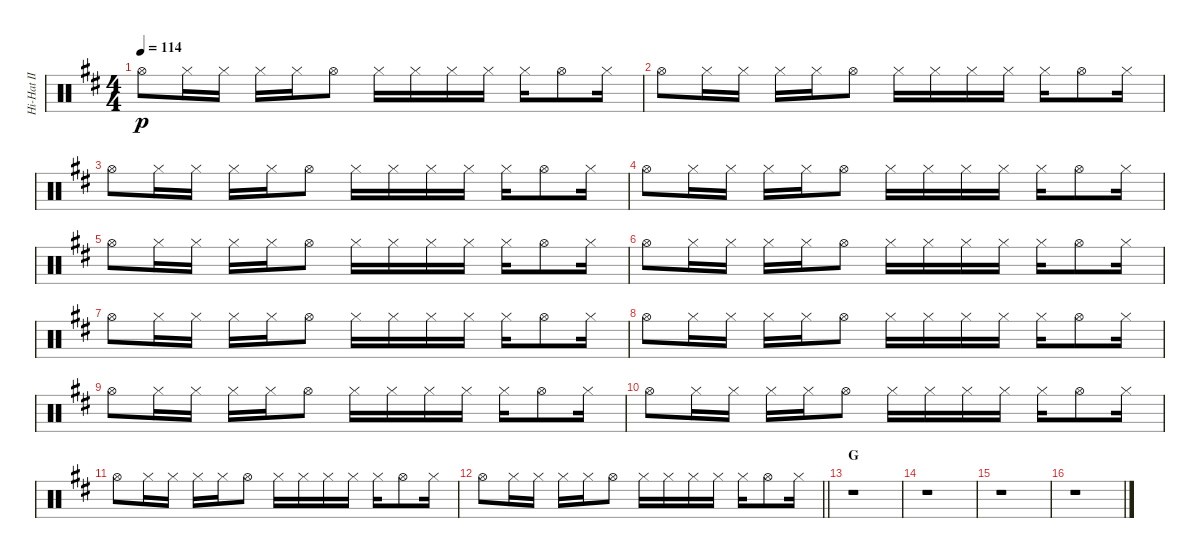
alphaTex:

\track ("Hi-Hat II" "Hi-Hat II") {instrument percussion}
\staff {score}
\articulation defaults
\ts (4 4)
\tempo 114
\clef neutral
\ks d "Hi-Hat (open)".8{dy p} "Hi-Hat (closed)".16 "Hi-Hat (closed)".16 "Hi-Hat (closed)".16 "Hi-Hat (closed)".16 "Hi-Hat (open)".8 "Hi-Hat (closed)".16 "Hi-Hat (closed)".16 "Hi-Hat (closed)".16 "Hi-Hat (closed)".16 "Hi-Hat (closed)".16 "Hi-Hat (open)".8 "Hi-Hat (closed)".16
|
"Hi-Hat (open)".8 "Hi-Hat (closed)".16 "Hi-Hat (closed)".16 "Hi-Hat (closed)".16 "Hi-Hat (closed)".16 "Hi-Hat (open)".8 "Hi-Hat (closed)".16 "Hi-Hat (closed)".16 "Hi-Hat (closed)".16 "Hi-Hat (closed)".16 "Hi-Hat (closed)".16 "Hi-Hat (open)".8 "Hi-Hat (closed)".16 |
"Hi-Hat (open)".8 "Hi-Hat (closed)".16 "Hi-Hat (closed)".16 "Hi-Hat (closed)".16 "Hi-Hat (closed)".16 "Hi-Hat (open)".8 "Hi-Hat (closed)".16 "Hi-Hat (closed)".16 "Hi-Hat (closed)".16 "Hi-Hat (closed)".16 "Hi-Hat (closed)".16 "Hi-Hat (open)".8 "Hi-Hat (closed)".16 |
"Hi-Hat (open)".8 "Hi-Hat (closed)".16 "Hi-Hat (closed)".16 "Hi-Hat (closed)".16 "Hi-Hat (closed)".16 "Hi-Hat (open)".8 "Hi-Hat (closed)".16 "Hi-Hat (closed)".16 "Hi-Hat (closed)".16 "Hi-Hat (closed)".16 "Hi-Hat (closed)".16 "Hi-Hat (open)".8 "Hi-Hat (closed)".16 |
"Hi-Hat (open)".8 "Hi-Hat (closed)".16 "Hi-Hat (closed)".16 "Hi-Hat (closed)".16 "Hi-Hat (closed)".16 "Hi-Hat (open)".8 "Hi-Hat (closed)".16 "Hi-Hat (closed)".16 "Hi-Hat (closed)".16 "Hi-Hat (closed)".16 "Hi-Hat (closed)".16 "Hi-Hat (open)".8 "Hi-Hat (closed)".16 |
"Hi-Hat (open)".8 "Hi-Hat (closed)".16 "Hi-Hat (closed)".16 "Hi-Hat (closed)".16 "Hi-Hat (closed)".16 "Hi-Hat (open)".8 "Hi-Hat (closed)".16 "Hi-Hat (closed)".16 "Hi-Hat (closed)".16 "Hi-Hat (closed)".16 "Hi-Hat (closed)".16 "Hi-Hat (open)".8 "Hi-Hat (closed)".16 |
"Hi-Hat (open)".8 "Hi-Hat (closed)".16 "Hi-Hat (closed)".16 "Hi-Hat (closed)".16 "Hi-Hat (closed)".16 "Hi-Hat (open)".8 "Hi-Hat (closed)".16 "Hi-Hat (closed)".16 "Hi-Hat (closed)".16 "Hi-Hat (closed)".16 "Hi-Hat (closed)".16 "Hi-Hat (open)".8 "Hi-Hat (closed)".16 |
"Hi-Hat (open)".8 "Hi-Hat (closed)".16 "Hi-Hat (closed)".16 "Hi-Hat (closed)".16 "Hi-Hat (closed)".16 "Hi-Hat (open)".8 "Hi-Hat (closed)".16 "Hi-Hat (closed)".16 "Hi-Hat (closed)".16 "Hi-Hat (closed)".16 "Hi-Hat (closed)".16 "Hi-Hat (open)".8 "Hi-Hat (closed)".16 |
"Hi-Hat (open)".8 "Hi-Hat (closed)".16 "Hi-Hat (closed)".16 "Hi-Hat (closed)".16 "Hi-Hat (closed)".16 "Hi-Hat (open)".8 "Hi-Hat (closed)".16 "Hi-Hat (closed)".16 "Hi-Hat (closed)".16 "Hi-Hat (closed)".16 "Hi-Hat (closed)".16 "Hi-Hat (open)".8 "Hi-Hat (closed)".16 |
"Hi-Hat (open)".8 "Hi-Hat (closed)".16 "Hi-Hat (closed)".16 "Hi-Hat (closed)".16 "Hi-Hat (closed)".16 "Hi-Hat (open)".8 "Hi-Hat (closed)".16 "Hi-Hat (closed)".16 "Hi-Hat (closed)".16 "Hi-Hat (closed)".16 "Hi-Hat (closed)".16 "Hi-Hat (open)".8 "Hi-Hat (closed)".16 |
"Hi-Hat (open)".8 "Hi-Hat (closed)".16 "Hi-Hat (closed)".16 "Hi-Hat (closed)".16 "Hi-Hat (closed)".16 "Hi-Hat (open)".8 "Hi-Hat (closed)".16 "Hi-Hat (closed)".16 "Hi-Hat (closed)".16 "Hi-Hat (closed)".16 "Hi-Hat (closed)".16 "Hi-Hat (open)".8 "Hi-Hat (closed)".16 |
\barLineRight lightlight "Hi-Hat (open)".8 "Hi-Hat (closed)".16 "Hi-Hat (closed)".16 "Hi-Hat (closed)".16 "Hi-Hat (closed)".16 "Hi-Hat (open)".8 "Hi-Hat (closed)".16 "Hi-Hat (closed)".16 "Hi-Hat (closed)".16 "Hi-Hat (closed)".16 "Hi-Hat (closed)".16 "Hi-Hat (open)".8 "Hi-Hat (closed)".16
|
\section ("" "G")
r.1 |
r.1 |
r.1 |
r.1
